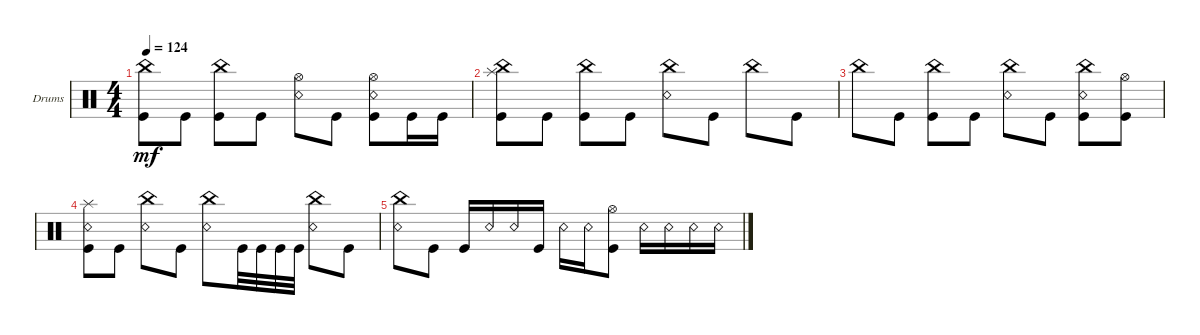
\defaultSystemsLayout 4
\bracketExtendMode groupsimilarinstruments
\firstSystemTrackNameOrientation horizontal
\otherSystemsTrackNameOrientation horizontal
\track ("Drums" "Drums") {instrument percussion}
\staff {score}
\articulation defaults
\ts (4 4)
\tempo 124
\clef neutral
\ks c
("Kick (hit)" "China (hit)").8{dy mf} "Kick (hit)".8 ("Kick (hit)" "China (hit)").8 "Kick (hit)".8 ("Snare (rim shot)" "Hi-Hat (open)").8 "Kick (hit)".8 ("Kick (hit)" "Snare (rim shot)" "Hi-Hat (open)").8 "Kick (hit)".16 "Kick (hit)".16 |
("Kick (hit)" "China (hit)" "Splash (hit)").8 "Kick (hit)".8 ("Kick (hit)" "China (hit)").8 "Kick (hit)".8 ("Snare (rim shot)" "China (hit)").8 "Kick (hit)".8 "China (hit)".8 "Kick (hit)".8 |
"China (hit)".8 "Kick (hit)".8 ("Kick (hit)" "China (hit)").8 "Kick (hit)".8 ("Snare (rim shot)" "China (hit)").8 "Kick (hit)".8 ("Kick (hit)" "China (hit)" "Snare (rim shot)").8 ("Kick (hit)" "Hi-Hat (open)").8 |
("Snare (rim shot)" "Kick (hit)" "Splash (hit)").8 "Kick (hit)".8 ("Snare (rim shot)" "China (hit)").8 "Kick (hit)".8 ("Snare (rim shot)" "China (hit)").8 "Kick (hit)".32 "Kick (hit)".32 "Kick (hit)".32 "Kick (hit)".32 ("Snare (rim shot)" "China (hit)").8 "Kick (hit)".8 |
("Snare (rim shot)" "China (hit)").8 "Kick (hit)".8 "Kick (hit)".16 "Snare (rim shot)".16 "Snare (rim shot)".16 "Kick (hit)".16 "Snare (rim shot)".16 "Snare (rim shot)".16 ("Kick (hit)" "Hi-Hat (open)").8 "Snare (rim shot)".16 "Snare (rim shot)".16 "Snare (rim shot)".16 "Snare (rim shot)".16
